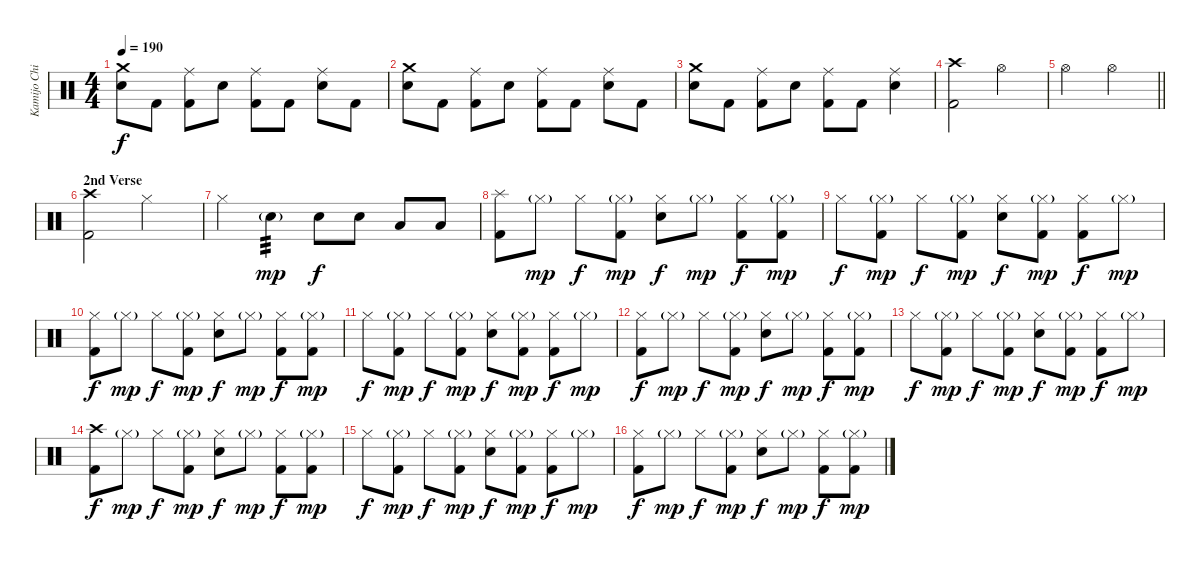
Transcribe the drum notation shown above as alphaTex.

\track ("Kamijo Chihiro" "Kamijo Chi") {instrument percussion}
\staff {score}
\articulation defaults
\ts (4 4)
\tempo 190
\clef neutral
\ks c
("Crash medium (hit)" "Snare (hit) 2").8{dy f} "Kick (hit) 2".8 ("Ride (middle)" "Kick (hit) 2").8 "Snare (hit) 2".8 ("Ride (middle)" "Kick (hit) 2").8 "Kick (hit) 2".8 ("Ride (middle)" "Snare (hit) 2").8 "Kick (hit) 2".8 |
("Crash medium (hit)" "Snare (hit) 2").8 "Kick (hit) 2".8 ("Ride (middle)" "Kick (hit) 2").8 "Snare (hit) 2".8 ("Ride (middle)" "Kick (hit) 2").8 "Kick (hit) 2".8 ("Ride (middle)" "Snare (hit) 2").8 "Kick (hit) 2".8 |
("Crash medium (hit)" "Snare (hit) 2").8 "Kick (hit) 2".8 ("Ride (middle)" "Kick (hit) 2").8 "Snare (hit) 2".8 ("Ride (middle)" "Kick (hit) 2").8 "Kick (hit) 2".8 ("Ride (middle)" "Snare (hit) 2").4 |
("Crash high (hit)" "Kick (hit) 2").2 "Hi-Hat (open)".2 |
\barLineRight lightlight "Hi-Hat (open)".2 "Hi-Hat (open)".2
|
\section ("" "2nd Verse")
("Crash high (hit)" "Kick (hit) 2").2 "Hi-Hat (closed)".2 |
"Hi-Hat (closed)".4 "Snare (hit) 2"{g}.4{tp 3 dy mp} "Snare (hit) 2".8{dy f} "Snare (hit) 2".8 "Low Tom (hit)".8 "Low Tom (hit)".8 |
("Splash (hit)" "Kick (hit) 2").8 "Hi-Hat (closed)"{g}.8{dy mp} "Hi-Hat (closed)".8{dy f} ("Hi-Hat (closed)"{g} "Kick (hit) 2").8{dy mp} ("Hi-Hat (closed)" "Snare (hit) 2").8{dy f} "Hi-Hat (closed)"{g}.8{dy mp} ("Hi-Hat (closed)" "Kick (hit) 2").8{dy f} ("Hi-Hat (closed)"{g} "Kick (hit) 2").8{dy mp} |
"Hi-Hat (closed)".8{dy f} ("Hi-Hat (closed)"{g} "Kick (hit) 2").8{dy mp} "Hi-Hat (closed)".8{dy f} ("Hi-Hat (closed)"{g} "Kick (hit) 2").8{dy mp} ("Hi-Hat (closed)" "Snare (hit) 2").8{dy f} ("Hi-Hat (closed)"{g} "Kick (hit) 2").8{dy mp} ("Hi-Hat (closed)" "Kick (hit) 2").8{dy f} "Hi-Hat (closed)"{g}.8{dy mp} |
("Hi-Hat (closed)" "Kick (hit) 2").8{dy f} "Hi-Hat (closed)"{g}.8{dy mp} "Hi-Hat (closed)".8{dy f} ("Hi-Hat (closed)"{g} "Kick (hit) 2").8{dy mp} ("Hi-Hat (closed)" "Snare (hit) 2").8{dy f} "Hi-Hat (closed)"{g}.8{dy mp} ("Hi-Hat (closed)" "Kick (hit) 2").8{dy f} ("Hi-Hat (closed)"{g} "Kick (hit) 2").8{dy mp} |
"Hi-Hat (closed)".8{dy f} ("Hi-Hat (closed)"{g} "Kick (hit) 2").8{dy mp} "Hi-Hat (closed)".8{dy f} ("Hi-Hat (closed)"{g} "Kick (hit) 2").8{dy mp} ("Hi-Hat (closed)" "Snare (hit) 2").8{dy f} ("Hi-Hat (closed)"{g} "Kick (hit) 2").8{dy mp} ("Hi-Hat (closed)" "Kick (hit) 2").8{dy f} "Hi-Hat (closed)"{g}.8{dy mp} |
("Hi-Hat (closed)" "Kick (hit) 2").8{dy f} "Hi-Hat (closed)"{g}.8{dy mp} "Hi-Hat (closed)".8{dy f} ("Hi-Hat (closed)"{g} "Kick (hit) 2").8{dy mp} ("Hi-Hat (closed)" "Snare (hit) 2").8{dy f} "Hi-Hat (closed)"{g}.8{dy mp} ("Hi-Hat (closed)" "Kick (hit) 2").8{dy f} ("Hi-Hat (closed)"{g} "Kick (hit) 2").8{dy mp} |
"Hi-Hat (closed)".8{dy f} ("Hi-Hat (closed)"{g} "Kick (hit) 2").8{dy mp} "Hi-Hat (closed)".8{dy f} ("Hi-Hat (closed)"{g} "Kick (hit) 2").8{dy mp} ("Hi-Hat (closed)" "Snare (hit) 2").8{dy f} ("Hi-Hat (closed)"{g} "Kick (hit) 2").8{dy mp} ("Hi-Hat (closed)" "Kick (hit) 2").8{dy f} "Hi-Hat (closed)"{g}.8{dy mp} |
("Crash high (hit)" "Kick (hit) 2").8{dy f} "Hi-Hat (closed)"{g}.8{dy mp} "Hi-Hat (closed)".8{dy f} ("Hi-Hat (closed)"{g} "Kick (hit) 2").8{dy mp} ("Hi-Hat (closed)" "Snare (hit) 2").8{dy f} "Hi-Hat (closed)"{g}.8{dy mp} ("Hi-Hat (closed)" "Kick (hit) 2").8{dy f} ("Hi-Hat (closed)"{g} "Kick (hit) 2").8{dy mp} |
"Hi-Hat (closed)".8{dy f} ("Hi-Hat (closed)"{g} "Kick (hit) 2").8{dy mp} "Hi-Hat (closed)".8{dy f} ("Hi-Hat (closed)"{g} "Kick (hit) 2").8{dy mp} ("Hi-Hat (closed)" "Snare (hit) 2").8{dy f} ("Hi-Hat (closed)"{g} "Kick (hit) 2").8{dy mp} ("Hi-Hat (closed)" "Kick (hit) 2").8{dy f} "Hi-Hat (closed)"{g}.8{dy mp} |
("Hi-Hat (closed)" "Kick (hit) 2").8{dy f} "Hi-Hat (closed)"{g}.8{dy mp} "Hi-Hat (closed)".8{dy f} ("Hi-Hat (closed)"{g} "Kick (hit) 2").8{dy mp} ("Hi-Hat (closed)" "Snare (hit) 2").8{dy f} "Hi-Hat (closed)"{g}.8{dy mp} ("Hi-Hat (closed)" "Kick (hit) 2").8{dy f} ("Hi-Hat (closed)"{g} "Kick (hit) 2").8{dy mp}
